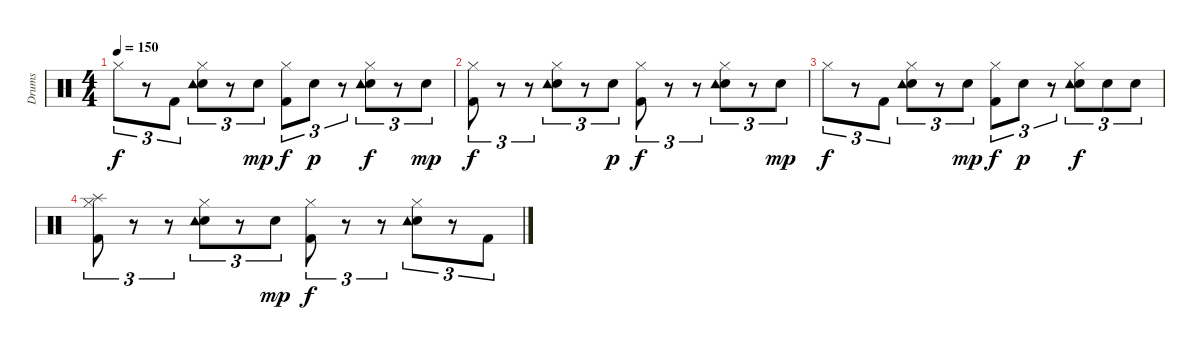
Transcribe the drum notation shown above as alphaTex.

\track ("Drums" "Drums") {instrument percussion}
\staff {score}
\articulation defaults
\ts (4 4)
\tempo 150
\clef neutral
\ks c "Hi-Hat (closed)".8{tu (3 2) dy f}
r.8{tu (3 2)} "Kick (hit) 2".8{tu (3 2)} ("Hi-Hat (closed)" "Electric Snare (hit)" "Tambourine (hit)").8{tu (3 2)} r.8{tu (3 2)} "Electric Snare (hit)".8{tu (3 2) dy mp} ("Hi-Hat (closed)" "Kick (hit) 2").8{tu (3 2) dy f} "Electric Snare (hit)".8{tu (3 2) dy p} r.8{tu (3 2)} ("Hi-Hat (closed)" "Electric Snare (hit)" "Tambourine (hit)").8{tu (3 2) dy f} r.8{tu (3 2)} "Electric Snare (hit)".8{tu (3 2) dy mp} |
("Hi-Hat (closed)" "Kick (hit) 2").8{tu (3 2) dy f} r.8{tu (3 2)} r.8{tu (3 2)} ("Hi-Hat (closed)" "Electric Snare (hit)" "Tambourine (hit)").8{tu (3 2)} r.8{tu (3 2)} "Electric Snare (hit)".8{tu (3 2) dy p} ("Hi-Hat (closed)" "Kick (hit) 2").8{tu (3 2) dy f} r.8{tu (3 2)} r.8{tu (3 2)} ("Hi-Hat (closed)" "Electric Snare (hit)" "Tambourine (hit)").8{tu (3 2)} r.8{tu (3 2)} "Electric Snare (hit)".8{tu (3 2) dy mp} |
"Hi-Hat (closed)".8{tu (3 2) dy f} r.8{tu (3 2)} "Kick (hit) 2".8{tu (3 2)} ("Hi-Hat (closed)" "Electric Snare (hit)" "Tambourine (hit)").8{tu (3 2)} r.8{tu (3 2)} "Electric Snare (hit)".8{tu (3 2) dy mp} ("Hi-Hat (closed)" "Kick (hit) 2").8{tu (3 2) dy f} "Electric Snare (hit)".8{tu (3 2) dy p} r.8{tu (3 2)} ("Hi-Hat (closed)" "Electric Snare (hit)" "Tambourine (hit)").8{tu (3 2) dy f} "Electric Snare (hit)".8{tu (3 2)} "Electric Snare (hit)".8{tu (3 2)} |
("Splash (hit)" "Hi-Hat (closed)" "Kick (hit) 2").8{tu (3 2)} r.8{tu (3 2)} r.8{tu (3 2)} ("Hi-Hat (closed)" "Electric Snare (hit)" "Tambourine (hit)").8{tu (3 2)} r.8{tu (3 2)} "Electric Snare (hit)".8{tu (3 2) dy mp} ("Hi-Hat (closed)" "Kick (hit) 2").8{tu (3 2) dy f} r.8{tu (3 2)} r.8{tu (3 2)} ("Hi-Hat (closed)" "Electric Snare (hit)" "Tambourine (hit)").8{tu (3 2)} r.8{tu (3 2)} "Kick (hit) 2".8{tu (3 2)}
